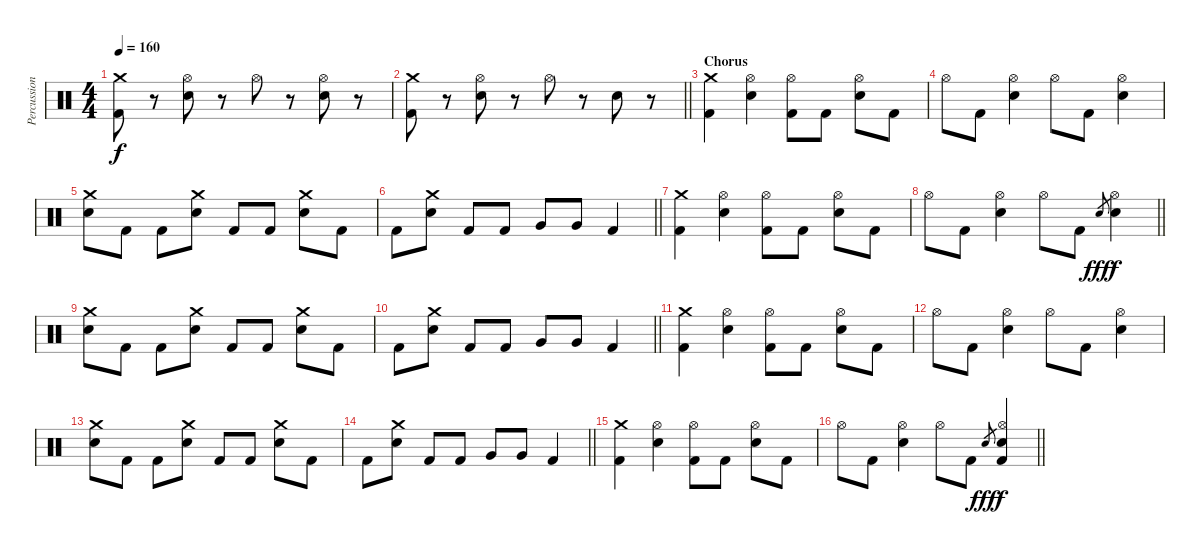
\track ("Percussion" "Percussion") {instrument percussion}
\staff {score}
\articulation defaults
\ts (4 4)
\tempo 160
\clef neutral
\ks c
("Crash medium (hit)" "Kick (hit) 2").8{dy f} r.8 ("Hi-Hat (open)" "Electric Snare (hit)").8 r.8 "Hi-Hat (open)".8 r.8 ("Hi-Hat (open)" "Electric Snare (hit)").8 r.8 |
\barLineRight lightlight
("Crash medium (hit)" "Kick (hit) 2").8 r.8 ("Hi-Hat (open)" "Electric Snare (hit)").8 r.8 "Hi-Hat (open)".8 r.8 "Electric Snare (hit)".8 r.8 |
\section ("" "Chorus")
("Crash medium (hit)" "Kick (hit) 2").4 ("Hi-Hat (open)" "Electric Snare (hit)").4 ("Hi-Hat (open)" "Kick (hit) 2").8 "Kick (hit) 2".8 ("Hi-Hat (open)" "Electric Snare (hit)").8 "Kick (hit) 2".8 |
"Hi-Hat (open)".8 "Kick (hit) 2".8 ("Hi-Hat (open)" "Electric Snare (hit)").4 "Hi-Hat (open)".8 "Kick (hit) 2".8 ("Hi-Hat (open)" "Electric Snare (hit)").4 |
("Crash medium (hit)" "Electric Snare (hit)").8 "Kick (hit) 2".8 "Kick (hit) 2".8 ("Crash medium (hit)" "Electric Snare (hit)").8 "Kick (hit) 2".8 "Kick (hit) 2".8 ("Crash medium (hit)" "Electric Snare (hit)").8 "Kick (hit) 2".8 |
\barLineRight lightlight "Kick (hit) 2".8
("Crash medium (hit)" "Electric Snare (hit)").8 "Kick (hit) 2".8 "Kick (hit) 2".8 "Very Low Tom (hit)".8 "Very Low Tom (hit)".8 "Kick (hit) 2".4 |
("Crash medium (hit)" "Kick (hit) 2").4 ("Hi-Hat (open)" "Electric Snare (hit)").4 ("Hi-Hat (open)" "Kick (hit) 2").8 "Kick (hit) 2".8 ("Hi-Hat (open)" "Electric Snare (hit)").8 "Kick (hit) 2".8 |
\barLineRight lightlight "Hi-Hat (open)".8 "Kick (hit) 2".8
("Hi-Hat (open)" "Electric Snare (hit)").4 "Hi-Hat (open)".8 "Kick (hit) 2".8 "Electric Snare (hit)".8{gr dy fff} ("Hi-Hat (open)" "Electric Snare (hit)").4{dy f} |
("Crash medium (hit)" "Electric Snare (hit)").8 "Kick (hit) 2".8 "Kick (hit) 2".8 ("Crash medium (hit)" "Electric Snare (hit)").8 "Kick (hit) 2".8 "Kick (hit) 2".8 ("Crash medium (hit)" "Electric Snare (hit)").8 "Kick (hit) 2".8 |
\barLineRight lightlight "Kick (hit) 2".8
("Crash medium (hit)" "Electric Snare (hit)").8 "Kick (hit) 2".8 "Kick (hit) 2".8 "Very Low Tom (hit)".8 "Very Low Tom (hit)".8 "Kick (hit) 2".4 |
("Crash medium (hit)" "Kick (hit) 2").4 ("Hi-Hat (open)" "Electric Snare (hit)").4 ("Hi-Hat (open)" "Kick (hit) 2").8 "Kick (hit) 2".8 ("Hi-Hat (open)" "Electric Snare (hit)").8 "Kick (hit) 2".8 |
"Hi-Hat (open)".8 "Kick (hit) 2".8 ("Hi-Hat (open)" "Electric Snare (hit)").4 "Hi-Hat (open)".8 "Kick (hit) 2".8 ("Hi-Hat (open)" "Electric Snare (hit)").4 |
("Crash medium (hit)" "Electric Snare (hit)").8 "Kick (hit) 2".8 "Kick (hit) 2".8 ("Crash medium (hit)" "Electric Snare (hit)").8 "Kick (hit) 2".8 "Kick (hit) 2".8 ("Crash medium (hit)" "Electric Snare (hit)").8 "Kick (hit) 2".8 |
\barLineRight lightlight "Kick (hit) 2".8
("Crash medium (hit)" "Electric Snare (hit)").8 "Kick (hit) 2".8 "Kick (hit) 2".8 "Very Low Tom (hit)".8 "Very Low Tom (hit)".8 "Kick (hit) 2".4 |
("Crash medium (hit)" "Kick (hit) 2").4 ("Hi-Hat (open)" "Electric Snare (hit)").4 ("Hi-Hat (open)" "Kick (hit) 2").8 "Kick (hit) 2".8 ("Hi-Hat (open)" "Electric Snare (hit)").8 "Kick (hit) 2".8 |
\barLineRight lightlight "Hi-Hat (open)".8 "Kick (hit) 2".8
("Hi-Hat (open)" "Electric Snare (hit)").4 "Hi-Hat (open)".8 "Kick (hit) 2".8 "Electric Snare (hit)".8{gr dy fff} ("Hi-Hat (open)" "Electric Snare (hit)" "Kick (hit) 2").4{dy f}
